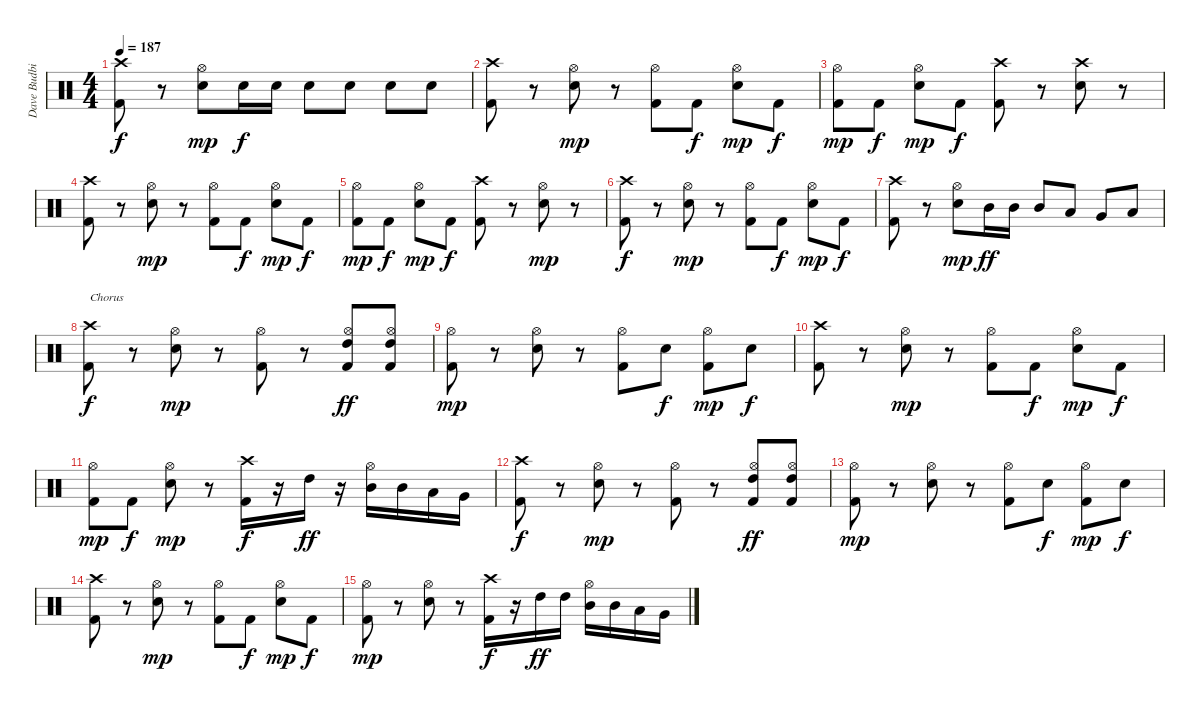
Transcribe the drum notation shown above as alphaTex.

\track ("Dave Budbill" "Dave Budbi") {instrument percussion}
\staff {score}
\articulation defaults
\ts (4 4)
\tempo 187
\clef neutral
\ks c
("Crash high (hit)" "Kick (hit) 2").8{dy f} r.8 ("Hi-Hat (open)" "Snare (hit) 2").8{dy mp} "Snare (hit) 2".16{dy f} "Snare (hit) 2".16 "Snare (hit) 2".8 "Snare (hit) 2".8 "Snare (hit) 2".8 "Snare (hit) 2".8 |
("Crash high (hit)" "Kick (hit) 2").8 r.8 ("Hi-Hat (open)" "Snare (hit) 2").8{dy mp} r.8 ("Hi-Hat (open)" "Kick (hit) 2").8 "Kick (hit) 2".8{dy f} ("Hi-Hat (open)" "Snare (hit) 2").8{dy mp} "Kick (hit) 2".8{dy f} |
("Hi-Hat (open)" "Kick (hit) 2").8{dy mp} "Kick (hit) 2".8{dy f} ("Hi-Hat (open)" "Snare (hit) 2").8{dy mp} "Kick (hit) 2".8{dy f} ("Crash high (hit)" "Kick (hit) 2").8 r.8 ("Crash high (hit)" "Snare (hit) 2").8 r.8 |
("Crash high (hit)" "Kick (hit) 2").8 r.8 ("Hi-Hat (open)" "Snare (hit) 2").8{dy mp} r.8 ("Hi-Hat (open)" "Kick (hit) 2").8 "Kick (hit) 2".8{dy f} ("Hi-Hat (open)" "Snare (hit) 2").8{dy mp} "Kick (hit) 2".8{dy f} |
("Hi-Hat (open)" "Kick (hit) 2").8{dy mp} "Kick (hit) 2".8{dy f} ("Hi-Hat (open)" "Snare (hit) 2").8{dy mp} "Kick (hit) 2".8{dy f} ("Crash high (hit)" "Kick (hit) 2").8 r.8 ("Hi-Hat (open)" "Snare (hit) 2").8{dy mp} r.8 |
("Crash high (hit)" "Kick (hit) 2").8{dy f} r.8 ("Hi-Hat (open)" "Snare (hit) 2").8{dy mp} r.8 ("Hi-Hat (open)" "Kick (hit) 2").8 "Kick (hit) 2".8{dy f} ("Hi-Hat (open)" "Snare (hit) 2").8{dy mp} "Kick (hit) 2".8{dy f} |
("Crash high (hit)" "Kick (hit) 2").8 r.8 ("Hi-Hat (open)" "Snare (hit) 2").8{dy mp} "Mid Tom (hit)".16{dy ff} "Mid Tom (hit)".16 "Mid Tom (hit)".8 "Low Tom (hit)".8 "Very Low Tom (hit)".8 "Low Floor Tom (hit)".8 |
("Crash high (hit)" "Kick (hit) 2").8{txt "Chorus" dy f} r.8 ("Hi-Hat (open)" "Snare (hit) 2").8{dy mp} r.8 ("Hi-Hat (open)" "Kick (hit) 2").8 r.8 ("Hi-Hat (open)" "High Tom (hit)" "Kick (hit) 2").8{dy ff} ("Hi-Hat (open)" "High Tom (hit)" "Kick (hit) 2").8 |
("Hi-Hat (open)" "Kick (hit) 2").8{dy mp} r.8 ("Hi-Hat (open)" "Snare (hit) 2").8 r.8 ("Hi-Hat (open)" "Kick (hit) 2").8 "Snare (hit) 2".8{dy f} ("Hi-Hat (open)" "Kick (hit) 2").8{dy mp} "Snare (hit) 2".8{dy f} |
("Crash high (hit)" "Kick (hit) 2").8 r.8 ("Hi-Hat (open)" "Snare (hit) 2").8{dy mp} r.8 ("Hi-Hat (open)" "Kick (hit) 2").8 "Kick (hit) 2".8{dy f} ("Hi-Hat (open)" "Snare (hit) 2").8{dy mp} "Kick (hit) 2".8{dy f} |
("Hi-Hat (open)" "Kick (hit) 2").8{dy mp} "Kick (hit) 2".8{dy f} ("Hi-Hat (open)" "Snare (hit) 2").8{dy mp} r.8 ("Crash high (hit)" "Kick (hit) 2").16{dy f} r.16 "High Tom (hit)".16{dy ff} r.16 ("Hi-Hat (open)" "Mid Tom (hit)").16 "Mid Tom (hit)".16 "Low Tom (hit)".16 "Very Low Tom (hit)".16 |
("Crash high (hit)" "Kick (hit) 2").8{dy f} r.8 ("Hi-Hat (open)" "Snare (hit) 2").8{dy mp} r.8 ("Hi-Hat (open)" "Kick (hit) 2").8 r.8 ("Hi-Hat (open)" "High Tom (hit)" "Kick (hit) 2").8{dy ff} ("Hi-Hat (open)" "High Tom (hit)" "Kick (hit) 2").8 |
("Hi-Hat (open)" "Kick (hit) 2").8{dy mp} r.8 ("Hi-Hat (open)" "Snare (hit) 2").8 r.8 ("Hi-Hat (open)" "Kick (hit) 2").8 "Snare (hit) 2".8{dy f} ("Hi-Hat (open)" "Kick (hit) 2").8{dy mp} "Snare (hit) 2".8{dy f} |
("Crash high (hit)" "Kick (hit) 2").8 r.8 ("Hi-Hat (open)" "Snare (hit) 2").8{dy mp} r.8 ("Hi-Hat (open)" "Kick (hit) 2").8 "Kick (hit) 2".8{dy f} ("Hi-Hat (open)" "Snare (hit) 2").8{dy mp} "Kick (hit) 2".8{dy f} |
("Hi-Hat (open)" "Kick (hit) 2").8{dy mp} r.8 ("Hi-Hat (open)" "Snare (hit) 2").8 r.8 ("Crash high (hit)" "Kick (hit) 2").16{dy f} r.16 "High Tom (hit)".16{dy ff} "High Tom (hit)".16 ("Hi-Hat (open)" "Mid Tom (hit)").16 "Mid Tom (hit)".16 "Low Tom (hit)".16 "Very Low Tom (hit)".16
